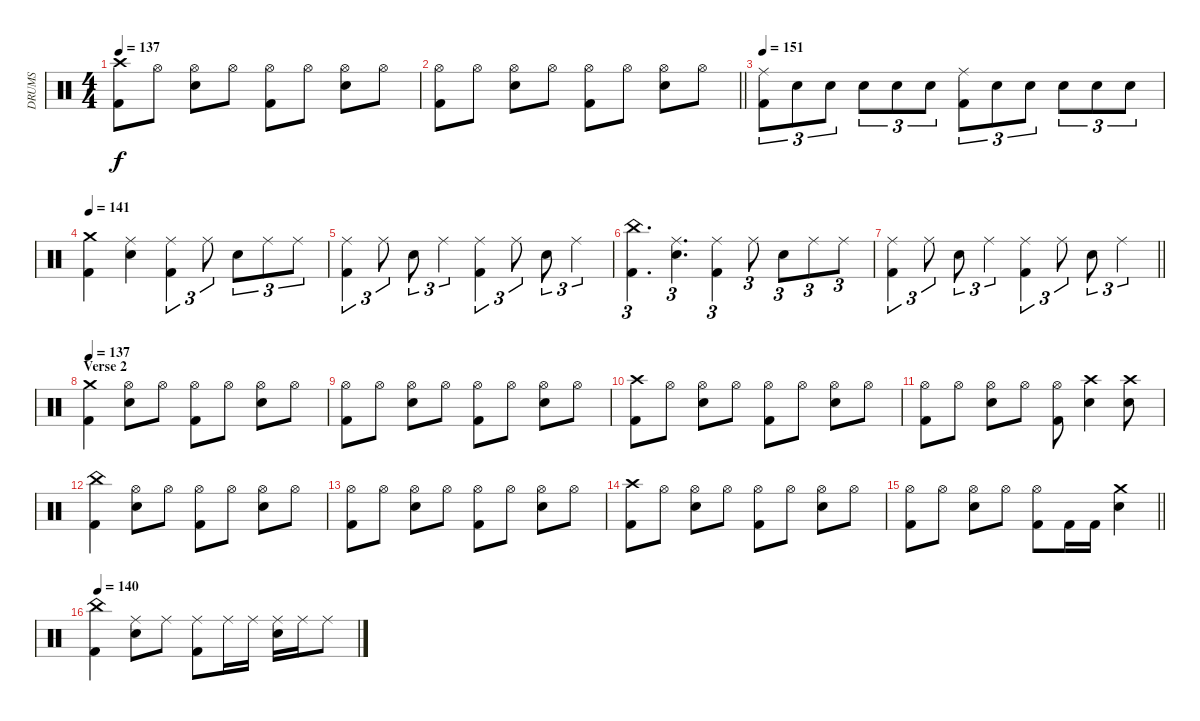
\track ("DRUMS" "DRUMS") {instrument percussion}
\staff {score}
\articulation defaults
\ts (4 4)
\tempo 137
\clef neutral
\ks c
("Crash high (hit)" "Kick (hit) 2").8{dy f} "Hi-Hat (open)".8 ("Hi-Hat (open)" "Snare (hit) 2").8 "Hi-Hat (open)".8 ("Hi-Hat (open)" "Kick (hit) 2").8 "Hi-Hat (open)".8 ("Hi-Hat (open)" "Snare (hit) 2").8 "Hi-Hat (open)".8 |
\barLineRight lightlight
("Hi-Hat (open)" "Kick (hit) 2").8 "Hi-Hat (open)".8 ("Hi-Hat (open)" "Snare (hit) 2").8 "Hi-Hat (open)".8 ("Hi-Hat (open)" "Kick (hit) 2").8 "Hi-Hat (open)".8 ("Hi-Hat (open)" "Snare (hit) 2").8 "Hi-Hat (open)".8 |
\tempo 151
("Ride (middle)" "Kick (hit) 2").8{tu (3 2)} "Snare (hit) 2".8{tu (3 2)} "Snare (hit) 2".8{tu (3 2)} "Snare (hit) 2".8{tu (3 2)} "Snare (hit) 2".8{tu (3 2)} "Snare (hit) 2".8{tu (3 2)} ("Ride (middle)" "Kick (hit) 2").8{tu (3 2)} "Snare (hit) 2".8{tu (3 2)} "Snare (hit) 2".8{tu (3 2)} "Snare (hit) 2".8{tu (3 2)} "Snare (hit) 2".8{tu (3 2)} "Snare (hit) 2".8{tu (3 2)} |
\tempo 141
("Crash medium (hit)" "Kick (hit) 2").4 ("Ride (middle)" "Snare (hit) 2").4 ("Ride (middle)" "Kick (hit) 2").4{tu (3 2)} "Ride (middle)".8{tu (3 2)} "Snare (hit) 2".8{tu (3 2)} "Ride (middle)".8{tu (3 2)} "Ride (middle)".8{tu (3 2)} |
("Ride (middle)" "Kick (hit) 2").4{tu (3 2)} "Ride (middle)".8{tu (3 2)} "Snare (hit) 2".8{tu (3 2)} "Ride (middle)".4{tu (3 2)} ("Ride (middle)" "Kick (hit) 2").4{tu (3 2)} "Ride (middle)".8{tu (3 2)} "Snare (hit) 2".8{tu (3 2)} "Ride (middle)".4{tu (3 2)} |
("China (hit)" "Kick (hit) 2").4{d tu (3 2)} ("Ride (middle)" "Snare (hit) 2").4{d tu (3 2)} ("Ride (middle)" "Kick (hit) 2").4{tu (3 2)} "Ride (middle)".8{tu (3 2)} "Snare (hit) 2".8{tu (3 2)} "Ride (middle)".8{tu (3 2)} "Ride (middle)".8{tu (3 2)} |
\barLineRight lightlight
("Ride (middle)" "Kick (hit) 2").4{tu (3 2)} "Ride (middle)".8{tu (3 2)} "Snare (hit) 2".8{tu (3 2)} "Ride (middle)".4{tu (3 2)} ("Ride (middle)" "Kick (hit) 2").4{tu (3 2)} "Ride (middle)".8{tu (3 2)} "Snare (hit) 2".8{tu (3 2)} "Ride (middle)".4{tu (3 2)} |
\section ("" "Verse 2")
\tempo 137
("Crash medium (hit)" "Kick (hit) 2").4 ("Hi-Hat (open)" "Snare (hit) 2").8 "Hi-Hat (open)".8 ("Hi-Hat (open)" "Kick (hit) 2").8 "Hi-Hat (open)".8 ("Hi-Hat (open)" "Snare (hit) 2").8 "Hi-Hat (open)".8 |
("Hi-Hat (open)" "Kick (hit) 2").8 "Hi-Hat (open)".8 ("Hi-Hat (open)" "Snare (hit) 2").8 "Hi-Hat (open)".8 ("Hi-Hat (open)" "Kick (hit) 2").8 "Hi-Hat (open)".8 ("Hi-Hat (open)" "Snare (hit) 2").8 "Hi-Hat (open)".8 |
("Crash high (hit)" "Kick (hit) 2").8 "Hi-Hat (open)".8 ("Hi-Hat (open)" "Snare (hit) 2").8 "Hi-Hat (open)".8 ("Hi-Hat (open)" "Kick (hit) 2").8 "Hi-Hat (open)".8 ("Hi-Hat (open)" "Snare (hit) 2").8 "Hi-Hat (open)".8 |
("Hi-Hat (open)" "Kick (hit) 2").8 "Hi-Hat (open)".8 ("Hi-Hat (open)" "Snare (hit) 2").8 "Hi-Hat (open)".8 ("Hi-Hat (open)" "Kick (hit) 2").8 ("Crash high (hit)" "Snare (hit) 2").4 ("Crash high (hit)" "Snare (hit) 2").8 |
("China (hit)" "Kick (hit) 2").4 ("Hi-Hat (open)" "Snare (hit) 2").8 "Hi-Hat (open)".8 ("Hi-Hat (open)" "Kick (hit) 2").8 "Hi-Hat (open)".8 ("Hi-Hat (open)" "Snare (hit) 2").8 "Hi-Hat (open)".8 |
("Hi-Hat (open)" "Kick (hit) 2").8 "Hi-Hat (open)".8 ("Hi-Hat (open)" "Snare (hit) 2").8 "Hi-Hat (open)".8 ("Hi-Hat (open)" "Kick (hit) 2").8 "Hi-Hat (open)".8 ("Hi-Hat (open)" "Snare (hit) 2").8 "Hi-Hat (open)".8 |
("Crash high (hit)" "Kick (hit) 2").8 "Hi-Hat (open)".8 ("Hi-Hat (open)" "Snare (hit) 2").8 "Hi-Hat (open)".8 ("Hi-Hat (open)" "Kick (hit) 2").8 "Hi-Hat (open)".8 ("Hi-Hat (open)" "Snare (hit) 2").8 "Hi-Hat (open)".8 |
\barLineRight lightlight
("Hi-Hat (open)" "Kick (hit) 2").8 "Hi-Hat (open)".8 ("Hi-Hat (open)" "Snare (hit) 2").8 "Hi-Hat (open)".8 ("Hi-Hat (open)" "Kick (hit) 2").8 "Kick (hit) 2".16 "Kick (hit) 2".16 ("Crash medium (hit)" "Snare (hit) 2").4 |
\tempo 140
("China (hit)" "Kick (hit) 2").4 ("Ride (middle)" "Snare (hit) 2").8 "Ride (middle)".8 ("Ride (middle)" "Kick (hit) 2").8 "Ride (middle)".16 "Ride (middle)".16 ("Ride (middle)" "Snare (hit) 2").16 "Ride (middle)".16 "Ride (middle)".8
